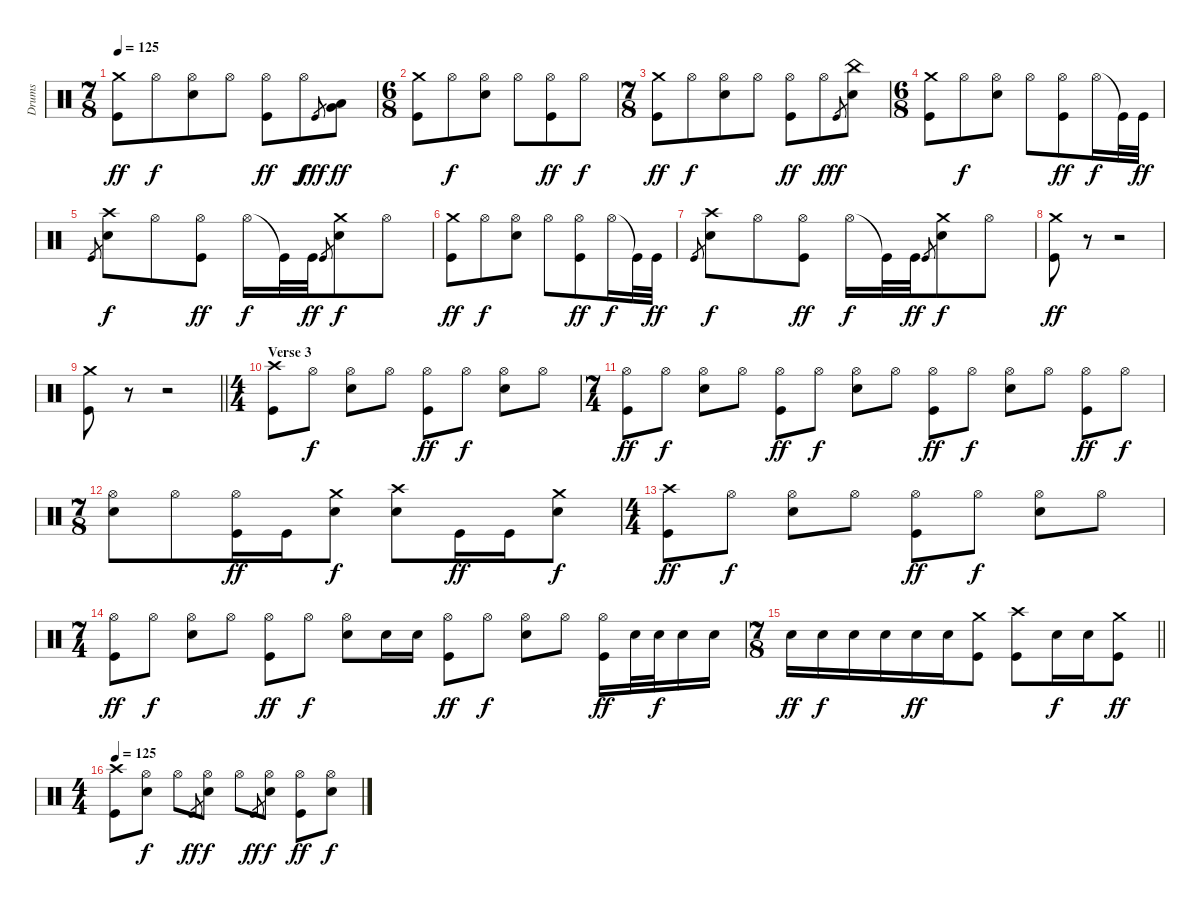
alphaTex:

\track ("Drums" "Drums") {instrument percussion}
\staff {score}
\articulation defaults
\ts (7 8)
\tempo 125
\clef neutral
\ks c
("Crash medium (hit)" "Kick (hit)").8{dy ff} "Hi-Hat (open)".8{dy f} ("Hi-Hat (open)" "Snare (hit) 2").8 "Hi-Hat (open)".8 ("Hi-Hat (open)" "Kick (hit)").8{dy ff} "Hi-Hat (open)".8{dy f} "Kick (hit)".8{gr dy fff} ("Very Low Tom (hit)" "Low Floor Tom (hit)").8{dy ff} |
\ts (6 8)
("Crash medium (hit)" "Kick (hit)").8 "Hi-Hat (open)".8{dy f} ("Hi-Hat (open)" "Snare (hit) 2").8 "Hi-Hat (open)".8 ("Hi-Hat (open)" "Kick (hit)").8{dy ff} "Hi-Hat (open)".8{dy f} |
\ts (7 8)
("Crash medium (hit)" "Kick (hit)").8{dy ff} "Hi-Hat (open)".8{dy f} ("Hi-Hat (open)" "Snare (hit) 2").8 "Hi-Hat (open)".8 ("Hi-Hat (open)" "Kick (hit)").8{dy ff} "Hi-Hat (open)".8{dy f} "Kick (hit)".8{gr dy ff} ("China (hit)" "Snare (hit) 2").8 |
\ts (6 8)
("Crash medium (hit)" "Kick (hit)").8 "Hi-Hat (open)".8{dy f} ("Hi-Hat (open)" "Snare (hit) 2").8 "Hi-Hat (open)".8 ("Hi-Hat (open)" "Kick (hit)").8{dy ff} "Hi-Hat (open)".16{dy f} "Kick (hit)"{t}.32 "Kick (hit)".32{dy ff} |
"Kick (hit)".8{gr} ("Crash high (hit)" "Snare (hit) 2").8{dy f} "Hi-Hat (open)".8 ("Hi-Hat (open)" "Kick (hit)").8{dy ff} "Hi-Hat (open)".16{dy f} "Kick (hit)"{t}.32 "Kick (hit)".32{dy ff} "Kick (hit)".8{gr} ("Crash medium (hit)" "Snare (hit) 2").8{dy f} "Hi-Hat (open)".8 |
("Crash medium (hit)" "Kick (hit)").8{dy ff} "Hi-Hat (open)".8{dy f} ("Hi-Hat (open)" "Snare (hit) 2").8 "Hi-Hat (open)".8 ("Hi-Hat (open)" "Kick (hit)").8{dy ff} "Hi-Hat (open)".16{dy f} "Kick (hit)"{t}.32 "Kick (hit)".32{dy ff} |
"Kick (hit)".8{gr} ("Crash high (hit)" "Snare (hit) 2").8{dy f} "Hi-Hat (open)".8 ("Hi-Hat (open)" "Kick (hit)").8{dy ff} "Hi-Hat (open)".16{dy f} "Kick (hit)"{t}.32 "Kick (hit)".32{dy ff} "Kick (hit)".8{gr} ("Crash medium (hit)" "Snare (hit) 2").8{dy f} "Hi-Hat (open)".8 |
("Crash medium (hit)" "Kick (hit)").8{dy ff} r.8 r.2 |
\barLineRight lightlight
("Crash medium (hit)" "Kick (hit)").8 r.8 r.2 |
\ts (4 4)
\section ("" "Verse 3")
("Crash high (hit)" "Kick (hit)").8 "Hi-Hat (open)".8{dy f} ("Hi-Hat (open)" "Snare (hit) 2").8 "Hi-Hat (open)".8 ("Hi-Hat (open)" "Kick (hit)").8{dy ff} "Hi-Hat (open)".8{dy f} ("Hi-Hat (open)" "Snare (hit) 2").8 "Hi-Hat (open)".8 |
\ts (7 4)
("Hi-Hat (open)" "Kick (hit)").8{dy ff} "Hi-Hat (open)".8{dy f} ("Hi-Hat (open)" "Snare (hit) 2").8 "Hi-Hat (open)".8 ("Hi-Hat (open)" "Kick (hit)").8{dy ff} "Hi-Hat (open)".8{dy f} ("Hi-Hat (open)" "Snare (hit) 2").8 "Hi-Hat (open)".8 ("Hi-Hat (open)" "Kick (hit)").8{dy ff} "Hi-Hat (open)".8{dy f} ("Hi-Hat (open)" "Snare (hit) 2").8 "Hi-Hat (open)".8 ("Hi-Hat (open)" "Kick (hit)").8{dy ff} "Hi-Hat (open)".8{dy f} |
\ts (7 8)
("Hi-Hat (open)" "Snare (hit) 2").8 "Hi-Hat (open)".8 ("Hi-Hat (open)" "Kick (hit)").16{dy ff} "Kick (hit)".16 ("Crash medium (hit)" "Snare (hit) 2").8{dy f} ("Crash high (hit)" "Snare (hit) 2").8 "Kick (hit)".16{dy ff} "Kick (hit)".16 ("Crash medium (hit)" "Snare (hit) 2").8{dy f} |
\ts (4 4)
("Crash high (hit)" "Kick (hit)").8{dy ff} "Hi-Hat (open)".8{dy f} ("Hi-Hat (open)" "Snare (hit) 2").8 "Hi-Hat (open)".8 ("Hi-Hat (open)" "Kick (hit)").8{dy ff} "Hi-Hat (open)".8{dy f} ("Hi-Hat (open)" "Snare (hit) 2").8 "Hi-Hat (open)".8 |
\ts (7 4)
("Hi-Hat (open)" "Kick (hit)").8{dy ff} "Hi-Hat (open)".8{dy f} ("Hi-Hat (open)" "Snare (hit) 2").8 "Hi-Hat (open)".8 ("Hi-Hat (open)" "Kick (hit)").8{dy ff} "Hi-Hat (open)".8{dy f} ("Hi-Hat (open)" "Snare (hit) 2").8 "Snare (hit) 2".16 "Snare (hit) 2".16 ("Hi-Hat (open)" "Kick (hit)").8{dy ff} "Hi-Hat (open)".8{dy f} ("Hi-Hat (open)" "Snare (hit) 2").8 "Hi-Hat (open)".8 ("Hi-Hat (open)" "Kick (hit)").16{dy ff} "Snare (hit) 2".32 "Snare (hit) 2".32{dy f} "Snare (hit) 2".16 "Snare (hit) 2".16 |
\ts (7 8)
\barLineRight lightlight "Snare (hit) 2".16{dy ff} "Snare (hit) 2".16{dy f} "Snare (hit) 2".16 "Snare (hit) 2".16 "Snare (hit) 2".16{dy ff} "Snare (hit) 2".16
("Crash medium (hit)" "Kick (hit)").8 ("Crash high (hit)" "Kick (hit)").8 "Snare (hit) 2".16{dy f} "Snare (hit) 2".16 ("Crash medium (hit)" "Kick (hit)").8{dy ff} |
\ts (4 4)
\tempo 125
("Crash high (hit)" "Kick (hit)").8 ("Hi-Hat (open)" "Snare (hit) 2").8{dy f} "Hi-Hat (open)".8 "Kick (hit)".8{gr dy ff} ("Hi-Hat (open)" "Snare (hit) 2").8{dy f} "Hi-Hat (open)".8 "Kick (hit)".8{gr dy ff} ("Hi-Hat (open)" "Snare (hit) 2").8{dy f} ("Hi-Hat (open)" "Kick (hit)").8{dy ff} ("Hi-Hat (open)" "Snare (hit) 2").8{dy f}
